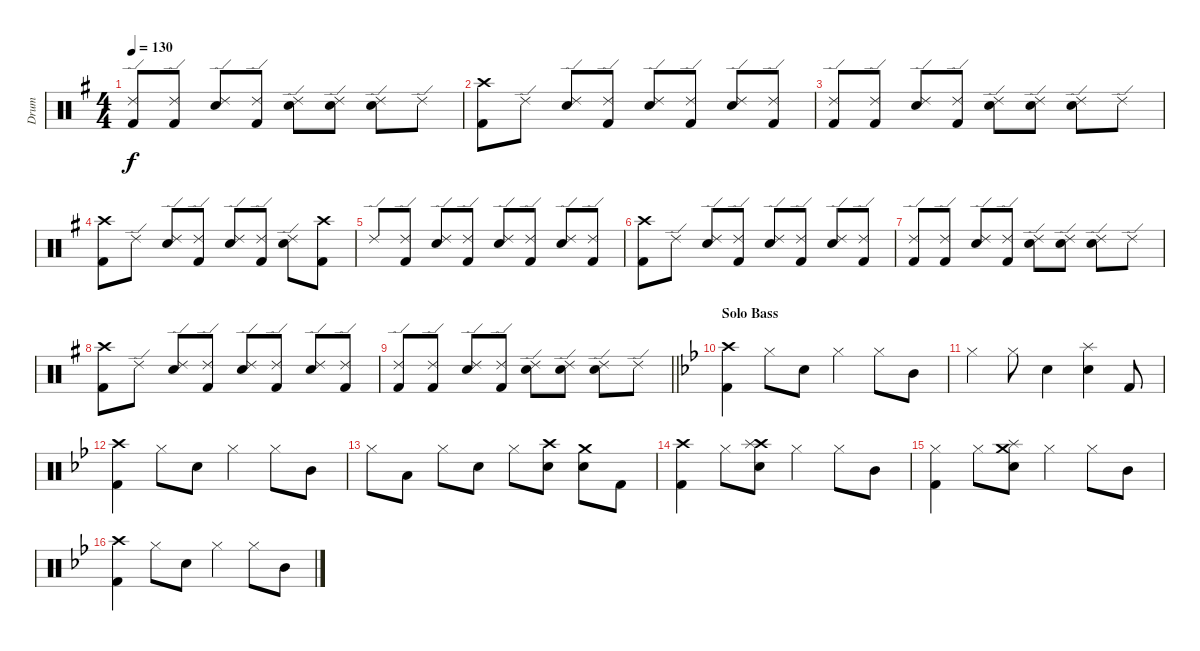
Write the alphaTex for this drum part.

\track ("Drum" "Drum") {instrument percussion}
\staff {score}
\articulation defaults
\ts (4 4)
\tempo 130
\clef neutral
\ks g
("Kick (hit) 2" "Ride (edge) 2").8{dy f} ("Kick (hit) 2" "Ride (edge) 2").8 ("Ride (edge) 2" "Electric Snare (hit)").8 ("Ride (edge) 2" "Kick (hit) 2").8 ("Electric Snare (hit)" "Ride (edge) 2").8 ("Ride (edge) 2" "Electric Snare (hit)").8 ("Electric Snare (hit)" "Ride (edge) 2").8 "Ride (edge) 2".8 |
("Kick (hit) 2" "Crash high (hit)").8 "Ride (edge) 2".8 ("Ride (edge) 2" "Electric Snare (hit)").8 ("Ride (edge) 2" "Kick (hit) 2").8 ("Electric Snare (hit)" "Ride (edge) 2").8 ("Ride (edge) 2" "Kick (hit) 2").8 ("Electric Snare (hit)" "Ride (edge) 2").8 ("Kick (hit) 2" "Ride (edge) 2").8 |
("Kick (hit) 2" "Ride (edge) 2").8 ("Kick (hit) 2" "Ride (edge) 2").8 ("Ride (edge) 2" "Electric Snare (hit)").8 ("Ride (edge) 2" "Kick (hit) 2").8 ("Electric Snare (hit)" "Ride (edge) 2").8 ("Ride (edge) 2" "Electric Snare (hit)").8 ("Electric Snare (hit)" "Ride (edge) 2").8 "Ride (edge) 2".8 |
("Kick (hit) 2" "Crash high (hit)").8 "Ride (edge) 2".8 ("Ride (edge) 2" "Electric Snare (hit)").8 ("Ride (edge) 2" "Kick (hit) 2").8 ("Electric Snare (hit)" "Ride (edge) 2").8 ("Ride (edge) 2" "Kick (hit) 2").8 ("Electric Snare (hit)" "Ride (edge) 2").8 ("Kick (hit) 2" "Crash high (hit)").8 |
"Ride (edge) 2".8 ("Kick (hit) 2" "Ride (edge) 2").8 ("Ride (edge) 2" "Electric Snare (hit)").8 ("Ride (edge) 2" "Kick (hit) 2").8 ("Electric Snare (hit)" "Ride (edge) 2").8 ("Ride (edge) 2" "Kick (hit) 2").8 ("Electric Snare (hit)" "Ride (edge) 2").8 ("Kick (hit) 2" "Ride (edge) 2").8 |
("Kick (hit) 2" "Crash high (hit)").8 "Ride (edge) 2".8 ("Ride (edge) 2" "Electric Snare (hit)").8 ("Ride (edge) 2" "Kick (hit) 2").8 ("Electric Snare (hit)" "Ride (edge) 2").8 ("Ride (edge) 2" "Kick (hit) 2").8 ("Electric Snare (hit)" "Ride (edge) 2").8 ("Kick (hit) 2" "Ride (edge) 2").8 |
("Kick (hit) 2" "Ride (edge) 2").8 ("Kick (hit) 2" "Ride (edge) 2").8 ("Ride (edge) 2" "Electric Snare (hit)").8 ("Ride (edge) 2" "Kick (hit) 2").8 ("Electric Snare (hit)" "Ride (edge) 2").8 ("Ride (edge) 2" "Electric Snare (hit)").8 ("Electric Snare (hit)" "Ride (edge) 2").8 "Ride (edge) 2".8 |
("Kick (hit) 2" "Crash high (hit)").8 "Ride (edge) 2".8 ("Ride (edge) 2" "Electric Snare (hit)").8 ("Ride (edge) 2" "Kick (hit) 2").8 ("Electric Snare (hit)" "Ride (edge) 2").8 ("Ride (edge) 2" "Kick (hit) 2").8 ("Electric Snare (hit)" "Ride (edge) 2").8 ("Kick (hit) 2" "Ride (edge) 2").8 |
\barLineRight lightlight
("Kick (hit) 2" "Ride (edge) 2").8 ("Kick (hit) 2" "Ride (edge) 2").8 ("Ride (edge) 2" "Electric Snare (hit)").8 ("Ride (edge) 2" "Kick (hit) 2").8 ("Electric Snare (hit)" "Ride (edge) 2").8 ("Ride (edge) 2" "Electric Snare (hit)").8 ("Electric Snare (hit)" "Ride (edge) 2").8 "Ride (edge) 2".8 |
\section ("" "Solo Bass")
\ks bb
("Kick (hit) 2" "Crash high (hit)").4 "Hi-Hat (closed)".8 "Electric Snare (hit)".8 "Hi-Hat (closed)".4 "Hi-Hat (closed)".8 "Mid Tom (hit)".8 |
"Hi-Hat (closed)".4 "Hi-Hat (closed)".8 "Electric Snare (hit)".4 ("Electric Snare (hit)" "Splash (hit)").4 "Kick (hit) 2".8 |
("Kick (hit) 2" "Crash high (hit)").4 "Hi-Hat (closed)".8 "Electric Snare (hit)".8 "Hi-Hat (closed)".4 "Hi-Hat (closed)".8 "Mid Tom (hit)".8 |
"Hi-Hat (closed)".8 "Low Tom (hit)".8 "Hi-Hat (closed)".8 "Electric Snare (hit)".8 "Hi-Hat (closed)".8 ("Electric Snare (hit)" "Crash high (hit)").8 ("Crash medium (hit)" "Electric Snare (hit)").8 "Kick (hit) 2".8 |
("Kick (hit) 2" "Crash high (hit)").4 "Hi-Hat (closed)".8 ("Electric Snare (hit)" "Crash high (hit)" "Splash (hit)").8 "Hi-Hat (closed)".4 "Hi-Hat (closed)".8 "Mid Tom (hit)".8 |
("Kick (hit) 2" "Hi-Hat (closed)").4 "Hi-Hat (closed)".8 ("Electric Snare (hit)" "Crash medium (hit)" "Splash (hit)").8 "Hi-Hat (closed)".4 "Hi-Hat (closed)".8 "Mid Tom (hit)".8 |
("Kick (hit) 2" "Crash high (hit)").4 "Hi-Hat (closed)".8 "Electric Snare (hit)".8 "Hi-Hat (closed)".4 "Hi-Hat (closed)".8 "Mid Tom (hit)".8
